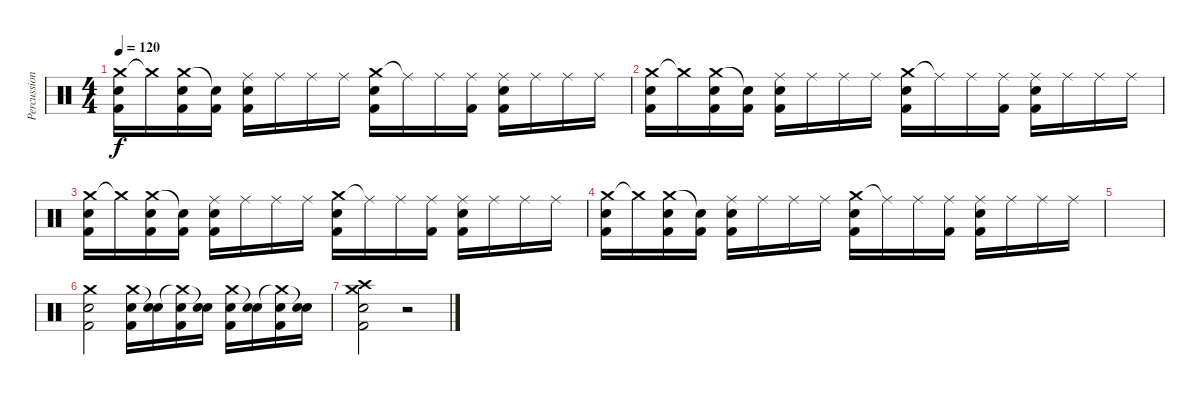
\track ("Percussion" "Percussion") {instrument percussion}
\staff {score}
\articulation defaults
\ts (4 4)
\tempo 120
\clef neutral
\ks c
("Crash medium (hit)" "Snare (hit) 2" "Kick (hit) 2").16{dy f balance 8} "Crash medium (hit)"{t}.16 ("Crash medium (hit)" "Snare (hit) 2" "Kick (hit) 2").16 ("Snare (hit)"{t} "Kick (hit) 2").16 ("Ride (middle)" "Snare (hit) 2" "Kick (hit) 2").16 "Ride (middle)".16 "Ride (middle)".16 "Ride (middle)".16 ("Crash medium (hit)" "Snare (hit) 2" "Kick (hit) 2").16 "Ride (middle)"{t}.16 "Ride (middle)".16 ("Ride (middle)" "Kick (hit) 2").16 ("Ride (middle)" "Snare (hit) 2" "Kick (hit) 2").16 "Ride (middle)".16 "Ride (middle)".16 "Ride (middle)".16 |
("Crash medium (hit)" "Snare (hit) 2" "Kick (hit) 2").16 "Crash medium (hit)"{t}.16 ("Crash medium (hit)" "Snare (hit) 2" "Kick (hit) 2").16 ("Snare (hit)"{t} "Kick (hit) 2").16 ("Ride (middle)" "Snare (hit) 2" "Kick (hit) 2").16 "Ride (middle)".16 "Ride (middle)".16 "Ride (middle)".16 ("Crash medium (hit)" "Snare (hit) 2" "Kick (hit) 2").16 "Ride (middle)"{t}.16 "Ride (middle)".16 ("Ride (middle)" "Kick (hit) 2").16 ("Ride (middle)" "Snare (hit) 2" "Kick (hit) 2").16 "Ride (middle)".16 "Ride (middle)".16 "Ride (middle)".16 |
("Crash medium (hit)" "Snare (hit) 2" "Kick (hit) 2").16{balance 8} "Crash medium (hit)"{t}.16 ("Crash medium (hit)" "Snare (hit) 2" "Kick (hit) 2").16 ("Snare (hit)"{t} "Kick (hit) 2").16 ("Ride (middle)" "Snare (hit) 2" "Kick (hit) 2").16 "Ride (middle)".16 "Ride (middle)".16 "Ride (middle)".16 ("Crash medium (hit)" "Snare (hit) 2" "Kick (hit) 2").16 "Ride (middle)"{t}.16 "Ride (middle)".16 ("Ride (middle)" "Kick (hit) 2").16 ("Ride (middle)" "Snare (hit) 2" "Kick (hit) 2").16 "Ride (middle)".16 "Ride (middle)".16 "Ride (middle)".16 |
("Crash medium (hit)" "Snare (hit) 2" "Kick (hit) 2").16 "Crash medium (hit)"{t}.16 ("Crash medium (hit)" "Snare (hit) 2" "Kick (hit) 2").16 ("Snare (hit)"{t} "Kick (hit) 2").16 ("Ride (middle)" "Snare (hit) 2" "Kick (hit) 2").16 "Ride (middle)".16 "Ride (middle)".16 "Ride (middle)".16 ("Crash medium (hit)" "Snare (hit) 2" "Kick (hit) 2").16 "Ride (middle)"{t}.16 "Ride (middle)".16 ("Ride (middle)" "Kick (hit) 2").16 ("Ride (middle)" "Snare (hit) 2" "Kick (hit) 2").16 "Ride (middle)".16 "Ride (middle)".16 "Ride (middle)".16 |
|
("Crash medium (hit)" "Snare (hit) 2" "Kick (hit) 2").2 ("Crash medium (hit)" "Snare (hit) 2" "Kick (hit) 2").16 ("Snare (hit)"{t} "Snare (hit) 2").16 ("Crash medium (hit)"{t} "Snare (hit) 2" "Kick (hit) 2").16 ("Snare (hit)"{t} "Snare (hit) 2").16 ("Crash medium (hit)" "Snare (hit) 2" "Kick (hit) 2").16 ("Snare (hit)"{t} "Snare (hit) 2").16 ("Crash medium (hit)"{t} "Snare (hit) 2" "Kick (hit) 2").16 ("Snare (hit)"{t} "Snare (hit) 2").16 |
("Crash medium (hit)" "Snare (hit) 2" "Crash high (hit)" "Kick (hit) 2").2 r.2
